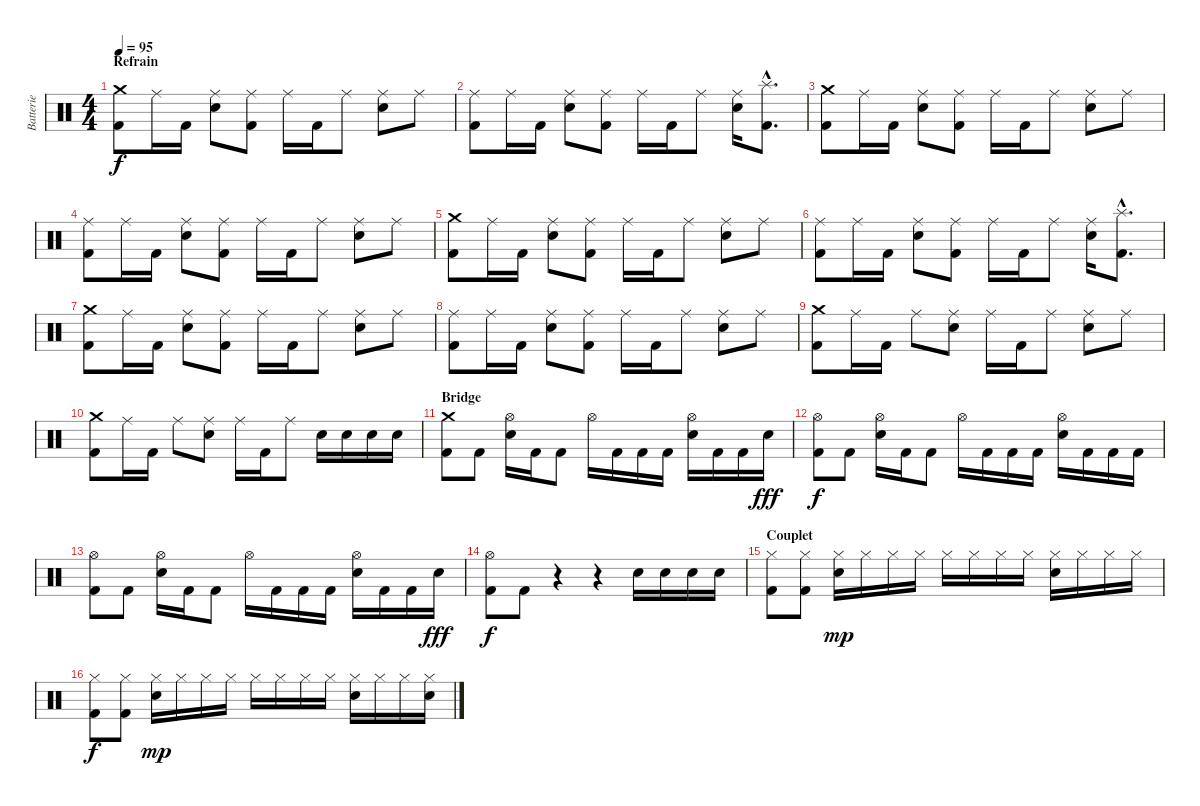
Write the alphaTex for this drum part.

\track ("Batterie" "Batterie") {instrument percussion}
\staff {score}
\articulation defaults
\ts (4 4)
\section ("" "Refrain")
\tempo 95
\clef neutral
\ks c
("Crash medium (hit)" "Kick (hit) 2").8{dy f} "Ride (middle)".16 "Kick (hit) 2".16 ("Ride (middle)" "Electric Snare (hit)").8 ("Ride (middle)" "Kick (hit) 2").8 "Ride (middle)".16 "Kick (hit) 2".16 "Ride (middle)".8 ("Ride (middle)" "Electric Snare (hit)").8 "Ride (middle)".8 |
("Ride (middle)" "Kick (hit) 2").8 "Ride (middle)".16 "Kick (hit) 2".16 ("Ride (middle)" "Electric Snare (hit)").8 ("Ride (middle)" "Kick (hit) 2").8 "Ride (middle)".16 "Kick (hit) 2".16 "Ride (middle)".8 ("Ride (middle)" "Electric Snare (hit)").16 ("Splash (hit)"{hac} "Kick (hit) 2"{hac}).8{d} |
("Crash medium (hit)" "Kick (hit) 2").8 "Ride (middle)".16 "Kick (hit) 2".16 ("Ride (middle)" "Electric Snare (hit)").8 ("Ride (middle)" "Kick (hit) 2").8 "Ride (middle)".16 "Kick (hit) 2".16 "Ride (middle)".8 ("Ride (middle)" "Electric Snare (hit)").8 "Ride (middle)".8 |
("Ride (middle)" "Kick (hit) 2").8 "Ride (middle)".16 "Kick (hit) 2".16 ("Ride (middle)" "Electric Snare (hit)").8 ("Ride (middle)" "Kick (hit) 2").8 "Ride (middle)".16 "Kick (hit) 2".16 "Ride (middle)".8 ("Ride (middle)" "Electric Snare (hit)").8 "Ride (middle)".8 |
("Crash medium (hit)" "Kick (hit) 2").8 "Ride (middle)".16 "Kick (hit) 2".16 ("Ride (middle)" "Electric Snare (hit)").8 ("Ride (middle)" "Kick (hit) 2").8 "Ride (middle)".16 "Kick (hit) 2".16 "Ride (middle)".8 ("Ride (middle)" "Electric Snare (hit)").8 "Ride (middle)".8 |
("Ride (middle)" "Kick (hit) 2").8 "Ride (middle)".16 "Kick (hit) 2".16 ("Ride (middle)" "Electric Snare (hit)").8 ("Ride (middle)" "Kick (hit) 2").8 "Ride (middle)".16 "Kick (hit) 2".16 "Ride (middle)".8 ("Ride (middle)" "Electric Snare (hit)").16 ("Splash (hit)"{hac} "Kick (hit) 2"{hac}).8{d} |
("Crash medium (hit)" "Kick (hit) 2").8 "Ride (middle)".16 "Kick (hit) 2".16 ("Ride (middle)" "Electric Snare (hit)").8 ("Ride (middle)" "Kick (hit) 2").8 "Ride (middle)".16 "Kick (hit) 2".16 "Ride (middle)".8 ("Ride (middle)" "Electric Snare (hit)").8 "Ride (middle)".8 |
("Ride (middle)" "Kick (hit) 2").8 "Ride (middle)".16 "Kick (hit) 2".16 ("Ride (middle)" "Electric Snare (hit)").8 ("Ride (middle)" "Kick (hit) 2").8 "Ride (middle)".16 "Kick (hit) 2".16 "Ride (middle)".8 ("Ride (middle)" "Electric Snare (hit)").8 "Ride (middle)".8 |
("Crash medium (hit)" "Kick (hit) 2").8 "Ride (middle)".16 "Kick (hit) 2".16 "Ride (middle)".8 ("Ride (middle)" "Electric Snare (hit)").8 "Ride (middle)".16 "Kick (hit) 2".16 "Ride (middle)".8 ("Ride (middle)" "Electric Snare (hit)").8 "Ride (middle)".8 |
("Crash medium (hit)" "Kick (hit) 2").8 "Ride (middle)".16 "Kick (hit) 2".16 "Ride (middle)".8 ("Ride (middle)" "Electric Snare (hit)").8 "Ride (middle)".16 "Kick (hit) 2".16 "Ride (middle)".8 "Electric Snare (hit)".16 "Electric Snare (hit)".16 "Electric Snare (hit)".16 "Electric Snare (hit)".16 |
\section ("" "Bridge")
("Crash medium (hit)" "Kick (hit) 2").8 "Kick (hit) 2".8 ("Hi-Hat (open)" "Electric Snare (hit)").16 "Kick (hit) 2".16 "Kick (hit) 2".8 "Hi-Hat (open)".16 "Kick (hit) 2".16 "Kick (hit) 2".16 "Kick (hit) 2".16 ("Hi-Hat (open)" "Electric Snare (hit)").16 "Kick (hit) 2".16 "Kick (hit) 2".16 "Electric Snare (hit)".16{dy fff} |
("Hi-Hat (open)" "Kick (hit) 2").8{dy f} "Kick (hit) 2".8 ("Hi-Hat (open)" "Electric Snare (hit)").16 "Kick (hit) 2".16 "Kick (hit) 2".8 "Hi-Hat (open)".16 "Kick (hit) 2".16 "Kick (hit) 2".16 "Kick (hit) 2".16 ("Hi-Hat (open)" "Electric Snare (hit)").16 "Kick (hit) 2".16 "Kick (hit) 2".16 "Kick (hit) 2".16 |
("Hi-Hat (open)" "Kick (hit) 2").8 "Kick (hit) 2".8 ("Hi-Hat (open)" "Electric Snare (hit)").16 "Kick (hit) 2".16 "Kick (hit) 2".8 "Hi-Hat (open)".16 "Kick (hit) 2".16 "Kick (hit) 2".16 "Kick (hit) 2".16 ("Hi-Hat (open)" "Electric Snare (hit)").16 "Kick (hit) 2".16 "Kick (hit) 2".16 "Electric Snare (hit)".16{dy fff} |
("Hi-Hat (open)" "Kick (hit) 2").8{dy f} "Kick (hit) 2".8 r.4 r.4 "Electric Snare (hit)".16 "Electric Snare (hit)".16 "Electric Snare (hit)".16 "Electric Snare (hit)".16 |
\section ("" "Couplet")
("Hi-Hat (closed)" "Kick (hit) 2").8 ("Hi-Hat (closed)" "Kick (hit) 2").8 ("Hi-Hat (closed)" "Electric Snare (hit)").16{dy mp} "Hi-Hat (closed)".16 "Hi-Hat (closed)".16 "Hi-Hat (closed)".16 "Hi-Hat (closed)".16 "Hi-Hat (closed)".16 "Hi-Hat (closed)".16 "Hi-Hat (closed)".16 ("Hi-Hat (closed)" "Electric Snare (hit)").16 "Hi-Hat (closed)".16 "Hi-Hat (closed)".16 "Hi-Hat (closed)".16 |
("Hi-Hat (closed)" "Kick (hit) 2").8{dy f} ("Hi-Hat (closed)" "Kick (hit) 2").8 ("Hi-Hat (closed)" "Electric Snare (hit)").16{dy mp} "Hi-Hat (closed)".16 "Hi-Hat (closed)".16 "Hi-Hat (closed)".16 "Hi-Hat (closed)".16 "Hi-Hat (closed)".16 "Hi-Hat (closed)".16 "Hi-Hat (closed)".16 ("Hi-Hat (closed)" "Electric Snare (hit)").16 "Hi-Hat (closed)".16 "Hi-Hat (closed)".16 ("Hi-Hat (closed)" "Electric Snare (hit)").16
